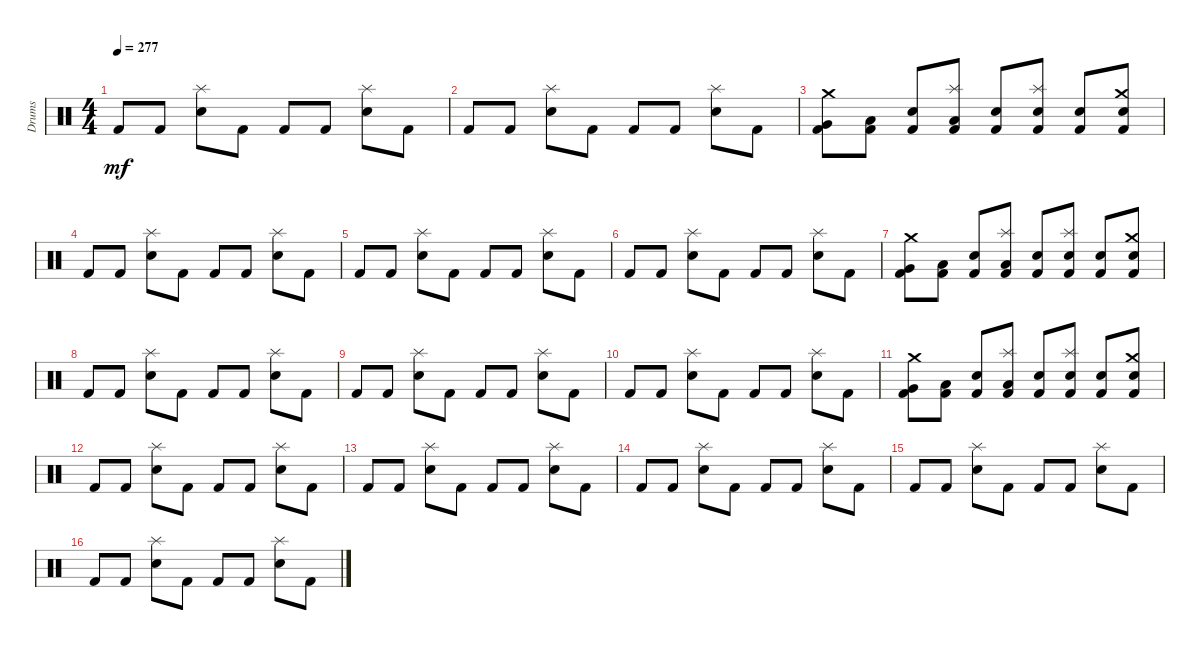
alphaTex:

\track ("Drums" "Drums") {instrument percussion}
\staff {score}
\articulation defaults
\ts (4 4)
\tempo 277
\clef neutral
\ks c "Kick (hit) 2".8{dy mf} "Kick (hit) 2".8
("Electric Snare (hit)" "Splash (hit)").8 "Kick (hit) 2".8 "Kick (hit) 2".8 "Kick (hit) 2".8 ("Electric Snare (hit)" "Splash (hit)").8 "Kick (hit) 2".8 |
"Kick (hit) 2".8 "Kick (hit) 2".8 ("Electric Snare (hit)" "Splash (hit)").8 "Kick (hit) 2".8 "Kick (hit) 2".8 "Kick (hit) 2".8 ("Electric Snare (hit)" "Splash (hit)").8 "Kick (hit) 2".8 |
("Very Low Tom (hit)" "Crash medium (hit)" "Kick (hit) 2").8 ("Low Floor Tom (hit)" "Kick (hit) 2").8 ("Electric Snare (hit)" "Kick (hit) 2").8 ("Splash (hit)" "Low Floor Tom (hit)" "Kick (hit) 2").8 ("Electric Snare (hit)" "Kick (hit) 2").8 ("Kick (hit) 2" "Snare (hit) 2" "Splash (hit)").8 ("Electric Snare (hit)" "Kick (hit) 2").8 ("Crash medium (hit)" "Snare (hit) 2" "Kick (hit) 2").8 |
"Kick (hit) 2".8 "Kick (hit) 2".8 ("Splash (hit)" "Electric Snare (hit)").8 "Kick (hit) 2".8 "Kick (hit) 2".8 "Kick (hit) 2".8 ("Splash (hit)" "Electric Snare (hit)").8 "Kick (hit) 2".8 |
"Kick (hit) 2".8 "Kick (hit) 2".8 ("Electric Snare (hit)" "Splash (hit)").8 "Kick (hit) 2".8 "Kick (hit) 2".8 "Kick (hit) 2".8 ("Splash (hit)" "Electric Snare (hit)").8 "Kick (hit) 2".8 |
"Kick (hit) 2".8 "Kick (hit) 2".8 ("Electric Snare (hit)" "Splash (hit)").8 "Kick (hit) 2".8 "Kick (hit) 2".8 "Kick (hit) 2".8 ("Electric Snare (hit)" "Splash (hit)").8 "Kick (hit) 2".8 |
("Very Low Tom (hit)" "Crash medium (hit)" "Kick (hit) 2").8 ("Kick (hit) 2" "Low Floor Tom (hit)").8 ("Electric Snare (hit)" "Kick (hit) 2").8 ("Low Floor Tom (hit)" "Splash (hit)" "Kick (hit) 2").8 ("Electric Snare (hit)" "Kick (hit) 2").8 ("Kick (hit) 2" "Snare (hit) 2" "Splash (hit)").8 ("Electric Snare (hit)" "Kick (hit) 2").8 ("Crash medium (hit)" "Kick (hit) 2" "Snare (hit) 2").8 |
"Kick (hit) 2".8 "Kick (hit) 2".8 ("Electric Snare (hit)" "Splash (hit)").8 "Kick (hit) 2".8 "Kick (hit) 2".8 "Kick (hit) 2".8 ("Splash (hit)" "Electric Snare (hit)").8 "Kick (hit) 2".8 |
"Kick (hit) 2".8 "Kick (hit) 2".8 ("Splash (hit)" "Electric Snare (hit)").8 "Kick (hit) 2".8 "Kick (hit) 2".8 "Kick (hit) 2".8 ("Electric Snare (hit)" "Splash (hit)").8 "Kick (hit) 2".8 |
"Kick (hit) 2".8 "Kick (hit) 2".8 ("Electric Snare (hit)" "Splash (hit)").8 "Kick (hit) 2".8 "Kick (hit) 2".8 "Kick (hit) 2".8 ("Electric Snare (hit)" "Splash (hit)").8 "Kick (hit) 2".8 |
("Kick (hit) 2" "Crash medium (hit)" "Very Low Tom (hit)").8 ("Low Floor Tom (hit)" "Kick (hit) 2").8 ("Kick (hit) 2" "Electric Snare (hit)").8 ("Splash (hit)" "Low Floor Tom (hit)" "Kick (hit) 2").8 ("Electric Snare (hit)" "Kick (hit) 2").8 ("Snare (hit) 2" "Kick (hit) 2" "Splash (hit)").8 ("Electric Snare (hit)" "Kick (hit) 2").8 ("Crash medium (hit)" "Kick (hit) 2" "Snare (hit) 2").8 |
"Kick (hit) 2".8 "Kick (hit) 2".8 ("Splash (hit)" "Electric Snare (hit)").8 "Kick (hit) 2".8 "Kick (hit) 2".8 "Kick (hit) 2".8 ("Electric Snare (hit)" "Splash (hit)").8 "Kick (hit) 2".8 |
"Kick (hit) 2".8 "Kick (hit) 2".8 ("Electric Snare (hit)" "Splash (hit)").8 "Kick (hit) 2".8 "Kick (hit) 2".8 "Kick (hit) 2".8 ("Splash (hit)" "Electric Snare (hit)").8 "Kick (hit) 2".8 |
"Kick (hit) 2".8 "Kick (hit) 2".8 ("Electric Snare (hit)" "Splash (hit)").8 "Kick (hit) 2".8 "Kick (hit) 2".8 "Kick (hit) 2".8 ("Electric Snare (hit)" "Splash (hit)").8 "Kick (hit) 2".8 |
"Kick (hit) 2".8 "Kick (hit) 2".8 ("Splash (hit)" "Electric Snare (hit)").8 "Kick (hit) 2".8 "Kick (hit) 2".8 "Kick (hit) 2".8 ("Electric Snare (hit)" "Splash (hit)").8 "Kick (hit) 2".8 |
"Kick (hit) 2".8 "Kick (hit) 2".8 ("Electric Snare (hit)" "Splash (hit)").8 "Kick (hit) 2".8 "Kick (hit) 2".8 "Kick (hit) 2".8 ("Splash (hit)" "Electric Snare (hit)").8 "Kick (hit) 2".8
